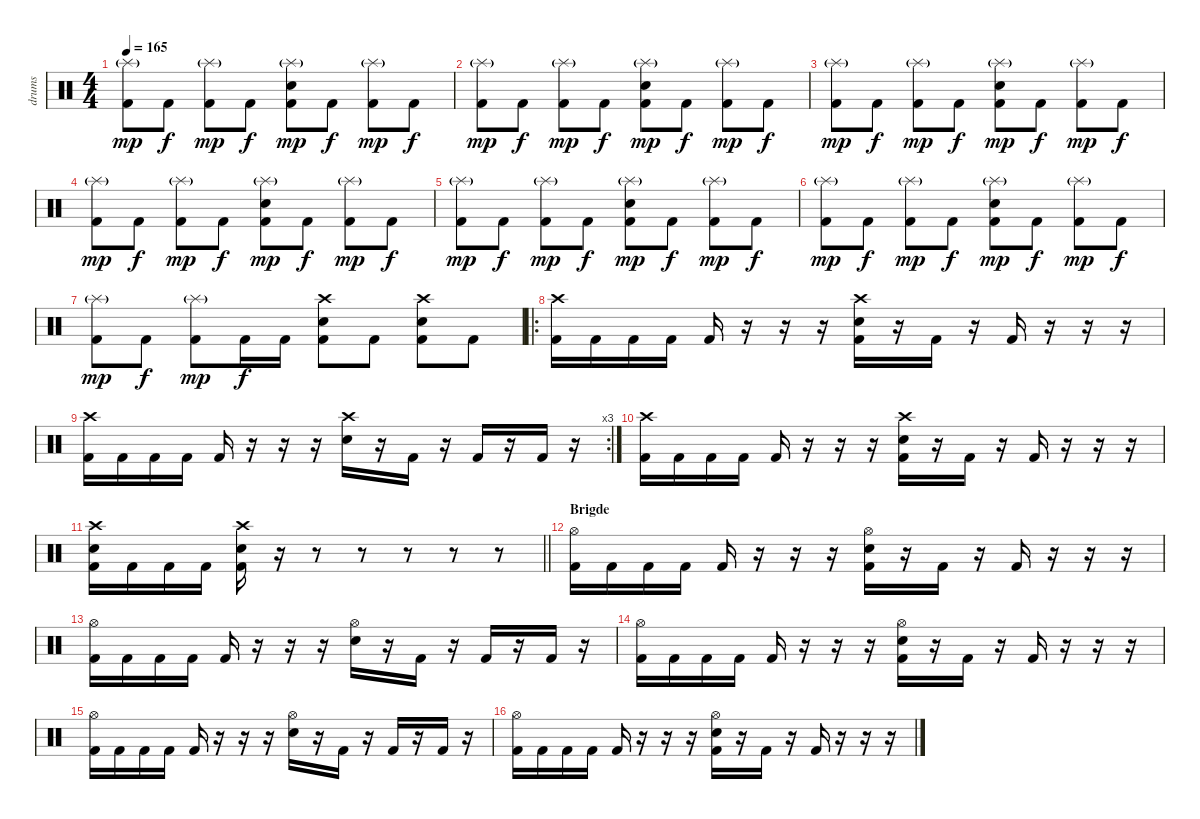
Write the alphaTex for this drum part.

\track ("drums" "drums") {instrument percussion}
\staff {score}
\articulation defaults
\ts (4 4)
\tempo 165
\clef neutral
\ks c
("Splash (hit)"{g} "Kick (hit) 2").8{dy mp} "Kick (hit) 2".8{dy f} ("Splash (hit)"{g} "Kick (hit) 2").8{dy mp} "Kick (hit) 2".8{dy f} ("Splash (hit)"{g} "Snare (hit) 2" "Kick (hit) 2").8{dy mp} "Kick (hit) 2".8{dy f} ("Splash (hit)"{g} "Kick (hit) 2").8{dy mp} "Kick (hit) 2".8{dy f} |
("Splash (hit)"{g} "Kick (hit) 2").8{dy mp} "Kick (hit) 2".8{dy f} ("Splash (hit)"{g} "Kick (hit) 2").8{dy mp} "Kick (hit) 2".8{dy f} ("Splash (hit)"{g} "Snare (hit) 2" "Kick (hit) 2").8{dy mp} "Kick (hit) 2".8{dy f} ("Splash (hit)"{g} "Kick (hit) 2").8{dy mp} "Kick (hit) 2".8{dy f} |
("Splash (hit)"{g} "Kick (hit) 2").8{dy mp} "Kick (hit) 2".8{dy f} ("Splash (hit)"{g} "Kick (hit) 2").8{dy mp} "Kick (hit) 2".8{dy f} ("Splash (hit)"{g} "Snare (hit) 2" "Kick (hit) 2").8{dy mp} "Kick (hit) 2".8{dy f} ("Splash (hit)"{g} "Kick (hit) 2").8{dy mp} "Kick (hit) 2".8{dy f} |
("Splash (hit)"{g} "Kick (hit) 2").8{dy mp} "Kick (hit) 2".8{dy f} ("Splash (hit)"{g} "Kick (hit) 2").8{dy mp} "Kick (hit) 2".8{dy f} ("Splash (hit)"{g} "Snare (hit) 2" "Kick (hit) 2").8{dy mp} "Kick (hit) 2".8{dy f} ("Splash (hit)"{g} "Kick (hit) 2").8{dy mp} "Kick (hit) 2".8{dy f} |
("Splash (hit)"{g} "Kick (hit) 2").8{dy mp} "Kick (hit) 2".8{dy f} ("Splash (hit)"{g} "Kick (hit) 2").8{dy mp} "Kick (hit) 2".8{dy f} ("Splash (hit)"{g} "Snare (hit) 2" "Kick (hit) 2").8{dy mp} "Kick (hit) 2".8{dy f} ("Splash (hit)"{g} "Kick (hit) 2").8{dy mp} "Kick (hit) 2".8{dy f} |
("Splash (hit)"{g} "Kick (hit) 2").8{dy mp} "Kick (hit) 2".8{dy f} ("Splash (hit)"{g} "Kick (hit) 2").8{dy mp} "Kick (hit) 2".8{dy f} ("Splash (hit)"{g} "Snare (hit) 2" "Kick (hit) 2").8{dy mp} "Kick (hit) 2".8{dy f} ("Splash (hit)"{g} "Kick (hit) 2").8{dy mp} "Kick (hit) 2".8{dy f} |
("Splash (hit)"{g} "Kick (hit) 2").8{dy mp} "Kick (hit) 2".8{dy f} ("Splash (hit)"{g} "Kick (hit) 2").8{dy mp} "Kick (hit) 2".16{dy f} "Kick (hit) 2".16 ("Crash high (hit)" "Snare (hit) 2" "Kick (hit) 2").8 "Kick (hit) 2".8 ("Crash high (hit)" "Snare (hit) 2" "Kick (hit) 2").8 "Kick (hit) 2".8 |
\ro
("Crash high (hit)" "Kick (hit) 2").16 "Kick (hit) 2".16 "Kick (hit) 2".16 "Kick (hit) 2".16 "Kick (hit) 2".16 r.16 r.16 r.16 ("Crash high (hit)" "Snare (hit) 2" "Kick (hit) 2").16 r.16 "Kick (hit) 2".16 r.16 "Kick (hit) 2".16 r.16 r.16 r.16 |
\rc 3
("Crash high (hit)" "Kick (hit) 2").16 "Kick (hit) 2".16 "Kick (hit) 2".16 "Kick (hit) 2".16 "Kick (hit) 2".16 r.16 r.16 r.16 ("Crash high (hit)" "Snare (hit) 2").16 r.16 "Kick (hit) 2".16 r.16 "Kick (hit) 2".16 r.16 "Kick (hit) 2".16 r.16 |
("Crash high (hit)" "Kick (hit) 2").16 "Kick (hit) 2".16 "Kick (hit) 2".16 "Kick (hit) 2".16 "Kick (hit) 2".16 r.16 r.16 r.16 ("Crash high (hit)" "Snare (hit) 2" "Kick (hit) 2").16 r.16 "Kick (hit) 2".16 r.16 "Kick (hit) 2".16 r.16 r.16 r.16 |
\barLineRight lightlight
("Crash high (hit)" "Snare (hit) 2" "Kick (hit) 2").16 "Kick (hit) 2".16 "Kick (hit) 2".16 "Kick (hit) 2".16 ("Crash high (hit)" "Snare (hit) 2" "Kick (hit) 2").16 r.16 r.8 r.8 r.8 r.8 r.8 |
\section ("" "Brigde")
("Hi-Hat (open)" "Kick (hit) 2").16 "Kick (hit) 2".16 "Kick (hit) 2".16 "Kick (hit) 2".16 "Kick (hit) 2".16 r.16 r.16 r.16 ("Hi-Hat (open)" "Snare (hit) 2" "Kick (hit) 2").16 r.16 "Kick (hit) 2".16 r.16 "Kick (hit) 2".16 r.16 r.16 r.16 |
("Hi-Hat (open)" "Kick (hit) 2").16 "Kick (hit) 2".16 "Kick (hit) 2".16 "Kick (hit) 2".16 "Kick (hit) 2".16 r.16 r.16 r.16 ("Hi-Hat (open)" "Snare (hit) 2").16 r.16 "Kick (hit) 2".16 r.16 "Kick (hit) 2".16 r.16 "Kick (hit) 2".16 r.16 |
("Hi-Hat (open)" "Kick (hit) 2").16 "Kick (hit) 2".16 "Kick (hit) 2".16 "Kick (hit) 2".16 "Kick (hit) 2".16 r.16 r.16 r.16 ("Hi-Hat (open)" "Snare (hit) 2" "Kick (hit) 2").16 r.16 "Kick (hit) 2".16 r.16 "Kick (hit) 2".16 r.16 r.16 r.16 |
("Hi-Hat (open)" "Kick (hit) 2").16 "Kick (hit) 2".16 "Kick (hit) 2".16 "Kick (hit) 2".16 "Kick (hit) 2".16 r.16 r.16 r.16 ("Hi-Hat (open)" "Snare (hit) 2").16 r.16 "Kick (hit) 2".16 r.16 "Kick (hit) 2".16 r.16 "Kick (hit) 2".16 r.16 |
("Hi-Hat (open)" "Kick (hit) 2").16 "Kick (hit) 2".16 "Kick (hit) 2".16 "Kick (hit) 2".16 "Kick (hit) 2".16 r.16 r.16 r.16 ("Hi-Hat (open)" "Snare (hit) 2" "Kick (hit) 2").16 r.16 "Kick (hit) 2".16 r.16 "Kick (hit) 2".16 r.16 r.16 r.16
